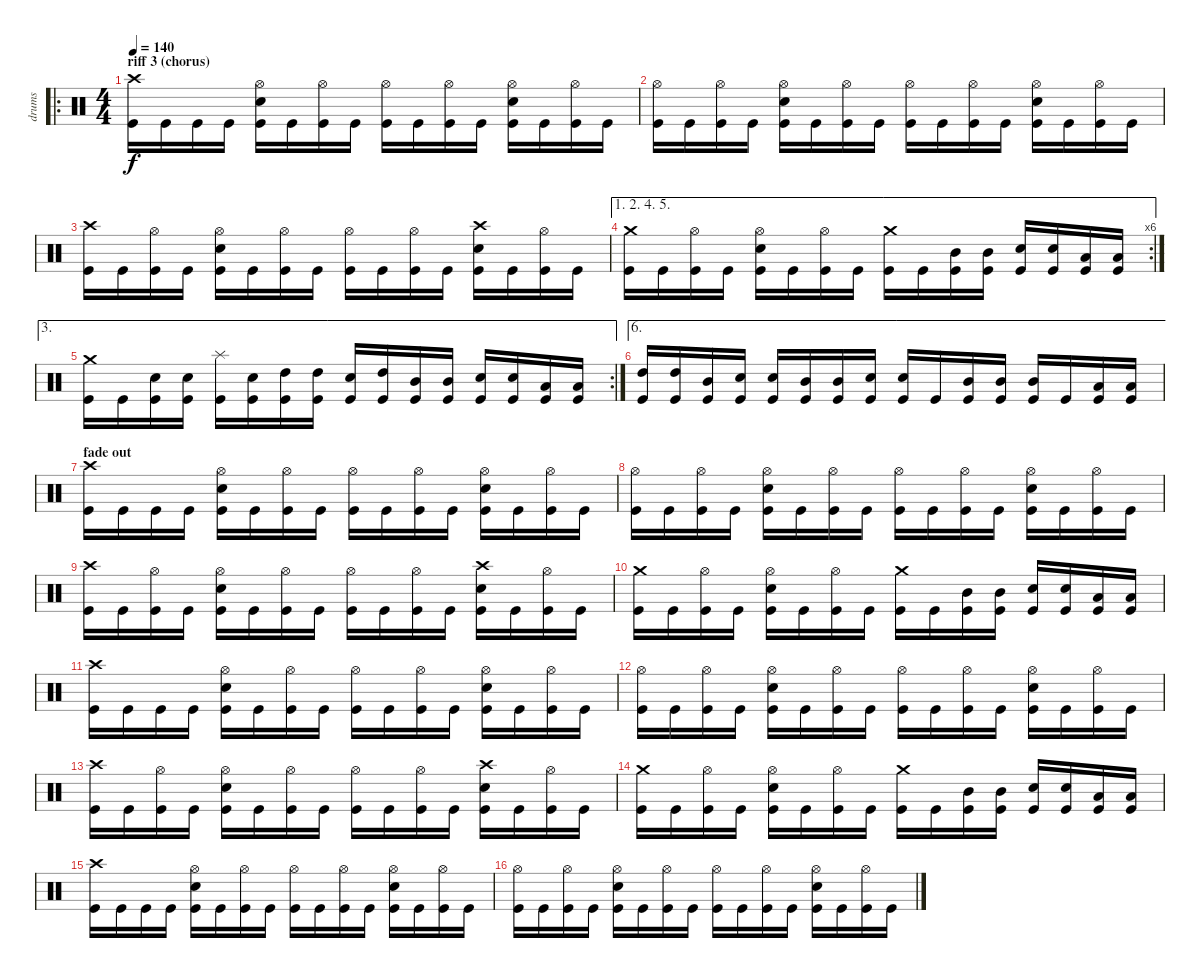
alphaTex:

\track ("drums" "drums") {instrument percussion}
\staff {score}
\articulation defaults
\ro
\ts (4 4)
\section ("" "riff 3 (chorus)")
\tempo 140
\clef neutral
\ks c
("Crash high (hit)" "Kick (hit)").16{dy f} "Kick (hit)".16 "Kick (hit)".16 "Kick (hit)".16 ("Hi-Hat (open)" "Snare (hit) 2" "Kick (hit)").16 "Kick (hit)".16 ("Hi-Hat (open)" "Kick (hit)").16 "Kick (hit)".16 ("Hi-Hat (open)" "Kick (hit)").16 "Kick (hit)".16 ("Hi-Hat (open)" "Kick (hit)").16 "Kick (hit)".16 ("Hi-Hat (open)" "Snare (hit) 2" "Kick (hit)").16 "Kick (hit)".16 ("Hi-Hat (open)" "Kick (hit)").16 "Kick (hit)".16 |
("Hi-Hat (open)" "Kick (hit)").16 "Kick (hit)".16 ("Hi-Hat (open)" "Kick (hit)").16 "Kick (hit)".16 ("Hi-Hat (open)" "Snare (hit) 2" "Kick (hit)").16 "Kick (hit)".16 ("Hi-Hat (open)" "Kick (hit)").16 "Kick (hit)".16 ("Hi-Hat (open)" "Kick (hit)").16 "Kick (hit)".16 ("Hi-Hat (open)" "Kick (hit)").16 "Kick (hit)".16 ("Hi-Hat (open)" "Snare (hit) 2" "Kick (hit)").16 "Kick (hit)".16 ("Hi-Hat (open)" "Kick (hit)").16 "Kick (hit)".16 |
("Crash high (hit)" "Kick (hit)").16 "Kick (hit)".16 ("Hi-Hat (open)" "Kick (hit)").16 "Kick (hit)".16 ("Hi-Hat (open)" "Snare (hit) 2" "Kick (hit)").16 "Kick (hit)".16 ("Hi-Hat (open)" "Kick (hit)").16 "Kick (hit)".16 ("Hi-Hat (open)" "Kick (hit)").16 "Kick (hit)".16 ("Hi-Hat (open)" "Kick (hit)").16 "Kick (hit)".16 ("Crash high (hit)" "Snare (hit) 2" "Kick (hit)").16 "Kick (hit)".16 ("Hi-Hat (open)" "Kick (hit)").16 "Kick (hit)".16 |
\ae (1 2 4 5)
\rc 6
("Crash medium (hit)" "Kick (hit)").16 "Kick (hit)".16 ("Hi-Hat (open)" "Kick (hit)").16 "Kick (hit)".16 ("Hi-Hat (open)" "Snare (hit) 2" "Kick (hit)").16 "Kick (hit)".16 ("Hi-Hat (open)" "Kick (hit)").16 "Kick (hit)".16 ("Crash medium (hit)" "Kick (hit)").16 "Kick (hit)".16 ("Mid Tom (hit)" "Kick (hit)").16 ("Mid Tom (hit)" "Kick (hit)").16 ("Snare (hit) 2" "Kick (hit)").16 ("Snare (hit) 2" "Kick (hit)").16 ("Low Tom (hit)" "Kick (hit)").16 ("Low Tom (hit)" "Kick (hit)").16 |
\ae 3
\rc 2
("Crash medium (hit)" "Kick (hit)").16 "Kick (hit)".16 ("Snare (hit) 2" "Kick (hit)").16 ("Snare (hit) 2" "Kick (hit)").16 ("Splash (hit)" "Kick (hit)").16 ("Snare (hit) 2" "Kick (hit)").16 ("High Tom (hit)" "Kick (hit)").16 ("High Tom (hit)" "Kick (hit)").16 ("Snare (hit) 2" "Kick (hit)").16 ("High Tom (hit)" "Kick (hit)").16 ("Mid Tom (hit)" "Kick (hit)").16 ("Mid Tom (hit)" "Kick (hit)").16 ("Snare (hit) 2" "Kick (hit)").16 ("Snare (hit) 2" "Kick (hit)").16 ("Low Tom (hit)" "Kick (hit)").16 ("Low Tom (hit)" "Kick (hit)").16 |
\ae 6
("High Tom (hit)" "Kick (hit)").16 ("High Tom (hit)" "Kick (hit)").16 ("Mid Tom (hit)" "Kick (hit)").16 ("Snare (hit) 2" "Kick (hit)").16 ("Snare (hit) 2" "Kick (hit)").16 ("Mid Tom (hit)" "Kick (hit)").16 ("Mid Tom (hit)" "Kick (hit)").16 ("Snare (hit) 2" "Kick (hit)").16 ("Snare (hit) 2" "Kick (hit)").16 "Kick (hit)".16 ("Mid Tom (hit)" "Kick (hit)").16 ("Mid Tom (hit)" "Kick (hit)").16 ("Mid Tom (hit)" "Kick (hit)").16 "Kick (hit)".16 ("Low Tom (hit)" "Kick (hit)").16 ("Low Tom (hit)" "Kick (hit)").16 |
\section ("" "fade out")
("Crash high (hit)" "Kick (hit)").16 "Kick (hit)".16 "Kick (hit)".16 "Kick (hit)".16 ("Hi-Hat (open)" "Snare (hit) 2" "Kick (hit)").16 "Kick (hit)".16 ("Hi-Hat (open)" "Kick (hit)").16 "Kick (hit)".16 ("Hi-Hat (open)" "Kick (hit)").16 "Kick (hit)".16 ("Hi-Hat (open)" "Kick (hit)").16 "Kick (hit)".16 ("Hi-Hat (open)" "Snare (hit) 2" "Kick (hit)").16 "Kick (hit)".16 ("Hi-Hat (open)" "Kick (hit)").16 "Kick (hit)".16 |
("Hi-Hat (open)" "Kick (hit)").16 "Kick (hit)".16 ("Hi-Hat (open)" "Kick (hit)").16 "Kick (hit)".16 ("Hi-Hat (open)" "Snare (hit) 2" "Kick (hit)").16 "Kick (hit)".16 ("Hi-Hat (open)" "Kick (hit)").16 "Kick (hit)".16 ("Hi-Hat (open)" "Kick (hit)").16 "Kick (hit)".16 ("Hi-Hat (open)" "Kick (hit)").16 "Kick (hit)".16 ("Hi-Hat (open)" "Snare (hit) 2" "Kick (hit)").16 "Kick (hit)".16 ("Hi-Hat (open)" "Kick (hit)").16 "Kick (hit)".16 |
("Crash high (hit)" "Kick (hit)").16 "Kick (hit)".16 ("Hi-Hat (open)" "Kick (hit)").16 "Kick (hit)".16 ("Hi-Hat (open)" "Snare (hit) 2" "Kick (hit)").16 "Kick (hit)".16 ("Hi-Hat (open)" "Kick (hit)").16 "Kick (hit)".16 ("Hi-Hat (open)" "Kick (hit)").16 "Kick (hit)".16 ("Hi-Hat (open)" "Kick (hit)").16 "Kick (hit)".16 ("Crash high (hit)" "Snare (hit) 2" "Kick (hit)").16 "Kick (hit)".16 ("Hi-Hat (open)" "Kick (hit)").16 "Kick (hit)".16 |
("Crash medium (hit)" "Kick (hit)").16 "Kick (hit)".16 ("Hi-Hat (open)" "Kick (hit)").16 "Kick (hit)".16 ("Hi-Hat (open)" "Snare (hit) 2" "Kick (hit)").16 "Kick (hit)".16 ("Hi-Hat (open)" "Kick (hit)").16 "Kick (hit)".16 ("Crash medium (hit)" "Kick (hit)").16 "Kick (hit)".16 ("Mid Tom (hit)" "Kick (hit)").16 ("Mid Tom (hit)" "Kick (hit)").16 ("Snare (hit) 2" "Kick (hit)").16 ("Snare (hit) 2" "Kick (hit)").16 ("Low Tom (hit)" "Kick (hit)").16 ("Low Tom (hit)" "Kick (hit)").16 |
("Crash high (hit)" "Kick (hit)").16 "Kick (hit)".16 "Kick (hit)".16 "Kick (hit)".16 ("Hi-Hat (open)" "Snare (hit) 2" "Kick (hit)").16 "Kick (hit)".16 ("Hi-Hat (open)" "Kick (hit)").16 "Kick (hit)".16 ("Hi-Hat (open)" "Kick (hit)").16 "Kick (hit)".16 ("Hi-Hat (open)" "Kick (hit)").16 "Kick (hit)".16 ("Hi-Hat (open)" "Snare (hit) 2" "Kick (hit)").16 "Kick (hit)".16 ("Hi-Hat (open)" "Kick (hit)").16 "Kick (hit)".16 |
("Hi-Hat (open)" "Kick (hit)").16 "Kick (hit)".16 ("Hi-Hat (open)" "Kick (hit)").16 "Kick (hit)".16 ("Hi-Hat (open)" "Snare (hit) 2" "Kick (hit)").16 "Kick (hit)".16 ("Hi-Hat (open)" "Kick (hit)").16 "Kick (hit)".16 ("Hi-Hat (open)" "Kick (hit)").16 "Kick (hit)".16 ("Hi-Hat (open)" "Kick (hit)").16 "Kick (hit)".16 ("Hi-Hat (open)" "Snare (hit) 2" "Kick (hit)").16 "Kick (hit)".16 ("Hi-Hat (open)" "Kick (hit)").16 "Kick (hit)".16 |
("Crash high (hit)" "Kick (hit)").16 "Kick (hit)".16 ("Hi-Hat (open)" "Kick (hit)").16 "Kick (hit)".16 ("Hi-Hat (open)" "Snare (hit) 2" "Kick (hit)").16 "Kick (hit)".16 ("Hi-Hat (open)" "Kick (hit)").16 "Kick (hit)".16 ("Hi-Hat (open)" "Kick (hit)").16 "Kick (hit)".16 ("Hi-Hat (open)" "Kick (hit)").16 "Kick (hit)".16 ("Crash high (hit)" "Snare (hit) 2" "Kick (hit)").16 "Kick (hit)".16 ("Hi-Hat (open)" "Kick (hit)").16 "Kick (hit)".16 |
("Crash medium (hit)" "Kick (hit)").16 "Kick (hit)".16 ("Hi-Hat (open)" "Kick (hit)").16 "Kick (hit)".16 ("Hi-Hat (open)" "Snare (hit) 2" "Kick (hit)").16 "Kick (hit)".16 ("Hi-Hat (open)" "Kick (hit)").16 "Kick (hit)".16 ("Crash medium (hit)" "Kick (hit)").16 "Kick (hit)".16 ("Mid Tom (hit)" "Kick (hit)").16 ("Mid Tom (hit)" "Kick (hit)").16 ("Snare (hit) 2" "Kick (hit)").16 ("Snare (hit) 2" "Kick (hit)").16 ("Low Tom (hit)" "Kick (hit)").16 ("Low Tom (hit)" "Kick (hit)").16 |
("Crash high (hit)" "Kick (hit)").16 "Kick (hit)".16 "Kick (hit)".16 "Kick (hit)".16 ("Hi-Hat (open)" "Snare (hit) 2" "Kick (hit)").16 "Kick (hit)".16 ("Hi-Hat (open)" "Kick (hit)").16 "Kick (hit)".16 ("Hi-Hat (open)" "Kick (hit)").16 "Kick (hit)".16 ("Hi-Hat (open)" "Kick (hit)").16 "Kick (hit)".16 ("Hi-Hat (open)" "Snare (hit) 2" "Kick (hit)").16 "Kick (hit)".16 ("Hi-Hat (open)" "Kick (hit)").16 "Kick (hit)".16 |
("Hi-Hat (open)" "Kick (hit)").16 "Kick (hit)".16 ("Hi-Hat (open)" "Kick (hit)").16 "Kick (hit)".16 ("Hi-Hat (open)" "Snare (hit) 2" "Kick (hit)").16 "Kick (hit)".16 ("Hi-Hat (open)" "Kick (hit)").16 "Kick (hit)".16 ("Hi-Hat (open)" "Kick (hit)").16 "Kick (hit)".16 ("Hi-Hat (open)" "Kick (hit)").16 "Kick (hit)".16 ("Hi-Hat (open)" "Snare (hit) 2" "Kick (hit)").16 "Kick (hit)".16 ("Hi-Hat (open)" "Kick (hit)").16 "Kick (hit)".16
